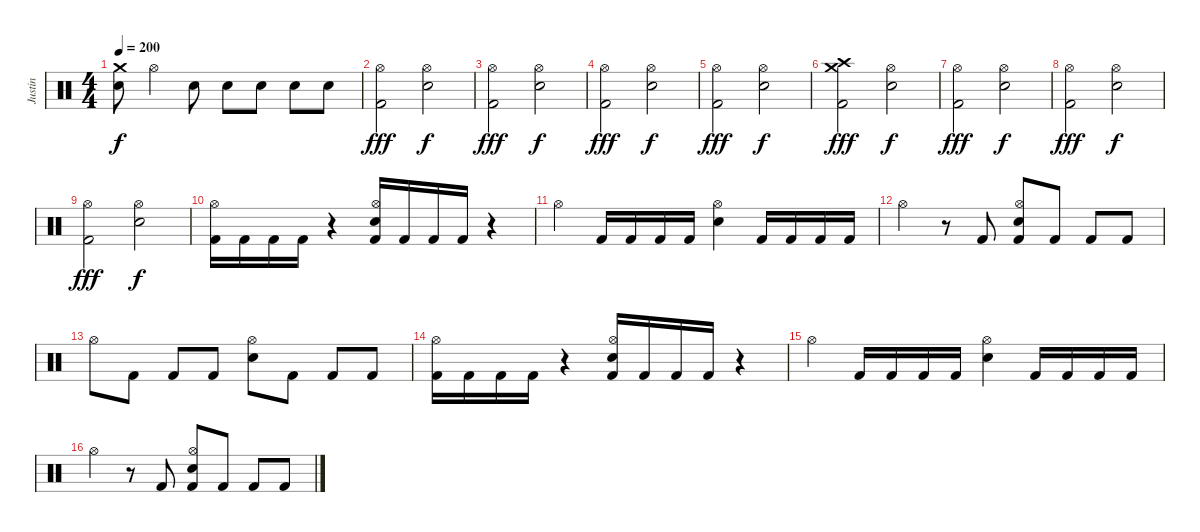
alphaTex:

\track ("Justin" "Justin") {instrument percussion}
\staff {score}
\articulation defaults
\ts (4 4)
\tempo 200
\clef neutral
\ks c
("Crash medium (hit)" "Electric Snare (hit)").8{dy f} "Hi-Hat (open)".4 "Electric Snare (hit)".8 "Electric Snare (hit)".8 "Electric Snare (hit)".8 "Electric Snare (hit)".8 "Electric Snare (hit)".8 |
("Hi-Hat (open)" "Kick (hit) 2").2{dy fff} ("Hi-Hat (open)" "Electric Snare (hit)").2{dy f} |
("Hi-Hat (open)" "Kick (hit) 2").2{dy fff} ("Hi-Hat (open)" "Electric Snare (hit)").2{dy f} |
("Hi-Hat (open)" "Kick (hit) 2").2{dy fff} ("Hi-Hat (open)" "Electric Snare (hit)").2{dy f} |
("Hi-Hat (open)" "Kick (hit) 2").2{dy fff} ("Hi-Hat (open)" "Electric Snare (hit)").2{dy f} |
("Crash medium (hit)" "Crash high (hit)" "Kick (hit) 2").2{dy fff} ("Hi-Hat (open)" "Electric Snare (hit)").2{dy f} |
("Hi-Hat (open)" "Kick (hit) 2").2{dy fff} ("Hi-Hat (open)" "Electric Snare (hit)").2{dy f} |
("Hi-Hat (open)" "Kick (hit) 2").2{dy fff} ("Hi-Hat (open)" "Electric Snare (hit)").2{dy f} |
("Hi-Hat (open)" "Kick (hit) 2").2{dy fff} ("Hi-Hat (open)" "Electric Snare (hit)").2{dy f} |
("Hi-Hat (open)" "Kick (hit) 2").16 "Kick (hit) 2".16 "Kick (hit) 2".16 "Kick (hit) 2".16 r.4 ("Hi-Hat (open)" "Electric Snare (hit)" "Kick (hit) 2").16 "Kick (hit) 2".16 "Kick (hit) 2".16 "Kick (hit) 2".16 r.4 |
"Hi-Hat (open)".4 "Kick (hit) 2".16 "Kick (hit) 2".16 "Kick (hit) 2".16 "Kick (hit) 2".16 ("Hi-Hat (open)" "Electric Snare (hit)").4 "Kick (hit) 2".16 "Kick (hit) 2".16 "Kick (hit) 2".16 "Kick (hit) 2".16 |
"Hi-Hat (open)".4 r.8 "Kick (hit) 2".8 ("Hi-Hat (open)" "Electric Snare (hit)" "Kick (hit) 2").8 "Kick (hit) 2".8 "Kick (hit) 2".8 "Kick (hit) 2".8 |
"Hi-Hat (open)".8 "Kick (hit) 2".8 "Kick (hit) 2".8 "Kick (hit) 2".8 ("Hi-Hat (open)" "Electric Snare (hit)").8 "Kick (hit) 2".8 "Kick (hit) 2".8 "Kick (hit) 2".8 |
("Hi-Hat (open)" "Kick (hit) 2").16 "Kick (hit) 2".16 "Kick (hit) 2".16 "Kick (hit) 2".16 r.4 ("Hi-Hat (open)" "Electric Snare (hit)" "Kick (hit) 2").16 "Kick (hit) 2".16 "Kick (hit) 2".16 "Kick (hit) 2".16 r.4 |
"Hi-Hat (open)".4 "Kick (hit) 2".16 "Kick (hit) 2".16 "Kick (hit) 2".16 "Kick (hit) 2".16 ("Hi-Hat (open)" "Electric Snare (hit)").4 "Kick (hit) 2".16 "Kick (hit) 2".16 "Kick (hit) 2".16 "Kick (hit) 2".16 |
"Hi-Hat (open)".4 r.8 "Kick (hit) 2".8 ("Hi-Hat (open)" "Electric Snare (hit)" "Kick (hit) 2").8 "Kick (hit) 2".8 "Kick (hit) 2".8 "Kick (hit) 2".8
